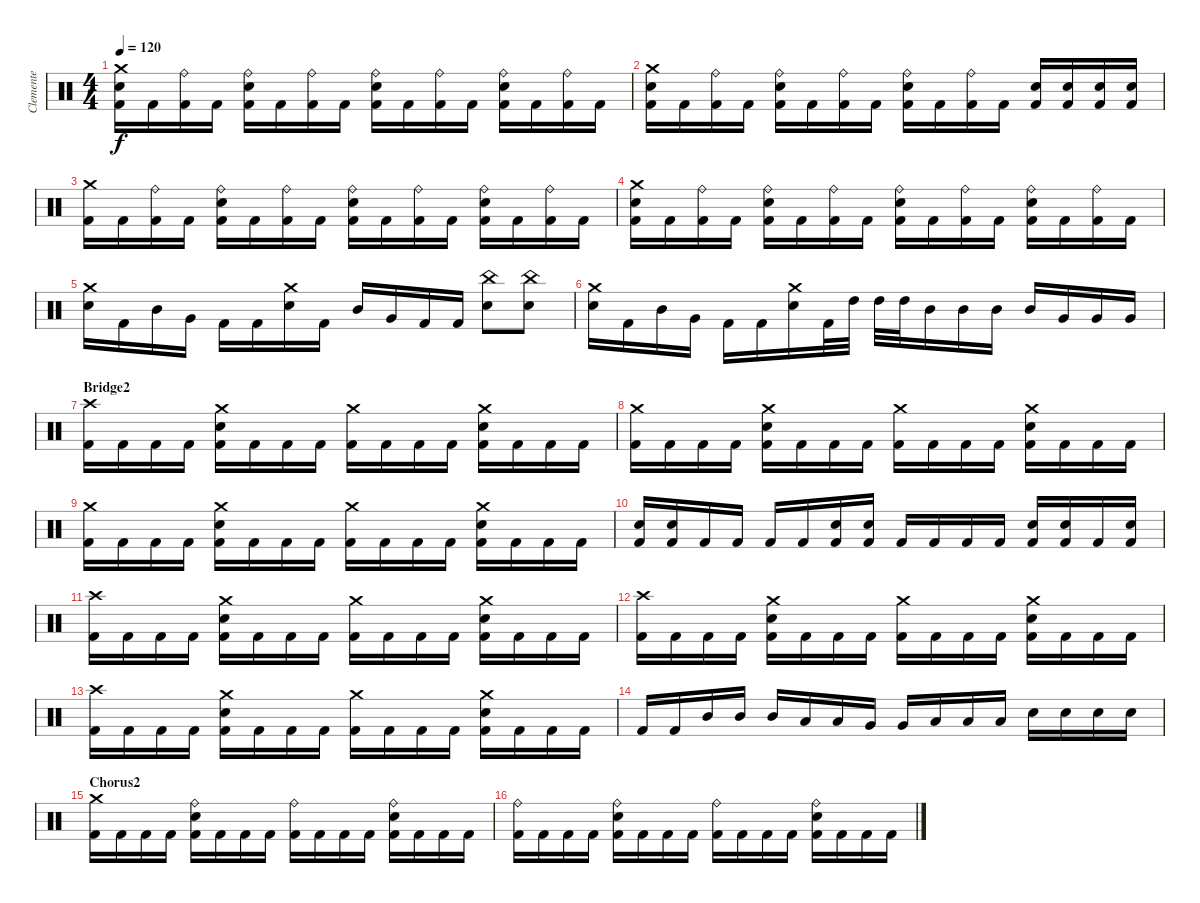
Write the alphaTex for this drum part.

\track ("Clemente" "Clemente") {instrument percussion}
\staff {score}
\articulation defaults
\ts (4 4)
\tempo 120
\clef neutral
\ks c
("Kick (hit) 2" "Electric Snare (hit)" "Crash medium (hit)").16{dy f} "Kick (hit) 2".16 ("Kick (hit) 2" "Ride (bell)").16 "Kick (hit) 2".16 ("Kick (hit) 2" "Electric Snare (hit)" "Ride (bell)").16 "Kick (hit) 2".16 ("Kick (hit) 2" "Ride (bell)").16 "Kick (hit) 2".16 ("Kick (hit) 2" "Electric Snare (hit)" "Ride (bell)").16 "Kick (hit) 2".16 ("Kick (hit) 2" "Ride (bell)").16 "Kick (hit) 2".16 ("Kick (hit) 2" "Electric Snare (hit)" "Ride (bell)").16 "Kick (hit) 2".16 ("Kick (hit) 2" "Ride (bell)").16 "Kick (hit) 2".16 |
("Kick (hit) 2" "Electric Snare (hit)" "Crash medium (hit)").16 "Kick (hit) 2".16 ("Kick (hit) 2" "Ride (bell)").16 "Kick (hit) 2".16 ("Kick (hit) 2" "Electric Snare (hit)" "Ride (bell)").16 "Kick (hit) 2".16 ("Kick (hit) 2" "Ride (bell)").16 "Kick (hit) 2".16 ("Kick (hit) 2" "Electric Snare (hit)" "Ride (bell)").16 "Kick (hit) 2".16 ("Kick (hit) 2" "Ride (bell)").16 "Kick (hit) 2".16 ("Kick (hit) 2" "Electric Snare (hit)").16 ("Kick (hit) 2" "Electric Snare (hit)").16 ("Kick (hit) 2" "Electric Snare (hit)").16 ("Kick (hit) 2" "Electric Snare (hit)").16 |
("Kick (hit) 2" "Crash medium (hit)").16 "Kick (hit) 2".16 ("Kick (hit) 2" "Ride (bell)").16 "Kick (hit) 2".16 ("Kick (hit) 2" "Electric Snare (hit)" "Ride (bell)").16 "Kick (hit) 2".16 ("Kick (hit) 2" "Ride (bell)").16 "Kick (hit) 2".16 ("Kick (hit) 2" "Electric Snare (hit)" "Ride (bell)").16 "Kick (hit) 2".16 ("Kick (hit) 2" "Ride (bell)").16 "Kick (hit) 2".16 ("Kick (hit) 2" "Electric Snare (hit)" "Ride (bell)").16 "Kick (hit) 2".16 ("Kick (hit) 2" "Ride (bell)").16 "Kick (hit) 2".16 |
("Kick (hit) 2" "Electric Snare (hit)" "Crash medium (hit)").16 "Kick (hit) 2".16 ("Kick (hit) 2" "Ride (bell)").16 "Kick (hit) 2".16 ("Kick (hit) 2" "Electric Snare (hit)" "Ride (bell)").16 "Kick (hit) 2".16 ("Kick (hit) 2" "Ride (bell)").16 "Kick (hit) 2".16 ("Kick (hit) 2" "Electric Snare (hit)" "Ride (bell)").16 "Kick (hit) 2".16 ("Kick (hit) 2" "Ride (bell)").16 "Kick (hit) 2".16 ("Kick (hit) 2" "Electric Snare (hit)" "Ride (bell)").16 "Kick (hit) 2".16 ("Kick (hit) 2" "Ride (bell)").16 "Kick (hit) 2".16 |
("Electric Snare (hit)" "Crash medium (hit)").16 "Kick (hit) 2".16 "Mid Tom (hit)".16 "Very Low Tom (hit)".16 "Kick (hit) 2".16 "Kick (hit) 2".16 ("Electric Snare (hit)" "Crash medium (hit)").16 "Kick (hit) 2".16 "Mid Tom (hit)".16 "Very Low Tom (hit)".16 "Kick (hit) 2".16 "Kick (hit) 2".16 ("Electric Snare (hit)" "China (hit)").8 ("Electric Snare (hit)" "China (hit)").8 |
("Electric Snare (hit)" "Crash medium (hit)").16 "Kick (hit) 2".16 "Mid Tom (hit)".16 "Very Low Tom (hit)".16 "Kick (hit) 2".16 "Kick (hit) 2".16 ("Electric Snare (hit)" "Crash medium (hit)").16 "Kick (hit) 2".32 "High Tom (hit)".32 "High Tom (hit)".32 "High Tom (hit)".32 "Mid Tom (hit)".16 "Mid Tom (hit)".16 "Mid Tom (hit)".16 "Mid Tom (hit)".16 "Very Low Tom (hit)".16 "Very Low Tom (hit)".16 "Very Low Tom (hit)".16 |
\section ("" "Bridge2")
("Kick (hit) 2" "Crash high (hit)").16 "Kick (hit) 2".16 "Kick (hit) 2".16 "Kick (hit) 2".16 ("Kick (hit) 2" "Electric Snare (hit)" "Crash medium (hit)").16 "Kick (hit) 2".16 "Kick (hit) 2".16 "Kick (hit) 2".16 ("Kick (hit) 2" "Crash medium (hit)").16 "Kick (hit) 2".16 "Kick (hit) 2".16 "Kick (hit) 2".16 ("Kick (hit) 2" "Electric Snare (hit)" "Crash medium (hit)").16 "Kick (hit) 2".16 "Kick (hit) 2".16 "Kick (hit) 2".16 |
("Kick (hit) 2" "Crash medium (hit)").16 "Kick (hit) 2".16 "Kick (hit) 2".16 "Kick (hit) 2".16 ("Kick (hit) 2" "Electric Snare (hit)" "Crash medium (hit)").16 "Kick (hit) 2".16 "Kick (hit) 2".16 "Kick (hit) 2".16 ("Kick (hit) 2" "Crash medium (hit)").16 "Kick (hit) 2".16 "Kick (hit) 2".16 "Kick (hit) 2".16 ("Kick (hit) 2" "Electric Snare (hit)" "Crash medium (hit)").16 "Kick (hit) 2".16 "Kick (hit) 2".16 "Kick (hit) 2".16 |
("Kick (hit) 2" "Crash medium (hit)").16 "Kick (hit) 2".16 "Kick (hit) 2".16 "Kick (hit) 2".16 ("Kick (hit) 2" "Electric Snare (hit)" "Crash medium (hit)").16 "Kick (hit) 2".16 "Kick (hit) 2".16 "Kick (hit) 2".16 ("Kick (hit) 2" "Crash medium (hit)").16 "Kick (hit) 2".16 "Kick (hit) 2".16 "Kick (hit) 2".16 ("Kick (hit) 2" "Electric Snare (hit)" "Crash medium (hit)").16 "Kick (hit) 2".16 "Kick (hit) 2".16 "Kick (hit) 2".16 |
("Kick (hit) 2" "Electric Snare (hit)").16 ("Kick (hit) 2" "Electric Snare (hit)").16 "Kick (hit) 2".16 "Kick (hit) 2".16 "Kick (hit) 2".16 "Kick (hit) 2".16 ("Kick (hit) 2" "Electric Snare (hit)").16 ("Kick (hit) 2" "Electric Snare (hit)").16 "Kick (hit) 2".16 "Kick (hit) 2".16 "Kick (hit) 2".16 "Kick (hit) 2".16 ("Kick (hit) 2" "Electric Snare (hit)").16 ("Kick (hit) 2" "Electric Snare (hit)").16 "Kick (hit) 2".16 ("Kick (hit) 2" "Electric Snare (hit)").16 |
("Kick (hit) 2" "Crash high (hit)").16 "Kick (hit) 2".16 "Kick (hit) 2".16 "Kick (hit) 2".16 ("Kick (hit) 2" "Electric Snare (hit)" "Crash medium (hit)").16 "Kick (hit) 2".16 "Kick (hit) 2".16 "Kick (hit) 2".16 ("Kick (hit) 2" "Crash medium (hit)").16 "Kick (hit) 2".16 "Kick (hit) 2".16 "Kick (hit) 2".16 ("Kick (hit) 2" "Electric Snare (hit)" "Crash medium (hit)").16 "Kick (hit) 2".16 "Kick (hit) 2".16 "Kick (hit) 2".16 |
("Kick (hit) 2" "Crash high (hit)").16 "Kick (hit) 2".16 "Kick (hit) 2".16 "Kick (hit) 2".16 ("Kick (hit) 2" "Electric Snare (hit)" "Crash medium (hit)").16 "Kick (hit) 2".16 "Kick (hit) 2".16 "Kick (hit) 2".16 ("Kick (hit) 2" "Crash medium (hit)").16 "Kick (hit) 2".16 "Kick (hit) 2".16 "Kick (hit) 2".16 ("Kick (hit) 2" "Electric Snare (hit)" "Crash medium (hit)").16 "Kick (hit) 2".16 "Kick (hit) 2".16 "Kick (hit) 2".16 |
("Kick (hit) 2" "Crash high (hit)").16 "Kick (hit) 2".16 "Kick (hit) 2".16 "Kick (hit) 2".16 ("Kick (hit) 2" "Electric Snare (hit)" "Crash medium (hit)").16 "Kick (hit) 2".16 "Kick (hit) 2".16 "Kick (hit) 2".16 ("Kick (hit) 2" "Crash medium (hit)").16 "Kick (hit) 2".16 "Kick (hit) 2".16 "Kick (hit) 2".16 ("Kick (hit) 2" "Electric Snare (hit)" "Crash medium (hit)").16 "Kick (hit) 2".16 "Kick (hit) 2".16 "Kick (hit) 2".16 |
"Kick (hit) 2".16 "Kick (hit) 2".16 "Mid Tom (hit)".16 "Mid Tom (hit)".16 "Mid Tom (hit)".16 "Low Tom (hit)".16 "Low Tom (hit)".16 "Very Low Tom (hit)".16 "Very Low Tom (hit)".16 "Low Floor Tom (hit)".16 "Low Floor Tom (hit)".16 "Low Floor Tom (hit)".16 "Electric Snare (hit)".16 "Electric Snare (hit)".16 "Electric Snare (hit)".16 "Electric Snare (hit)".16 |
\section ("" "Chorus2")
("Kick (hit) 2" "Crash medium (hit)").16 "Kick (hit) 2".16 "Kick (hit) 2".16 "Kick (hit) 2".16 ("Kick (hit) 2" "Electric Snare (hit)" "Ride (bell)").16 "Kick (hit) 2".16 "Kick (hit) 2".16 "Kick (hit) 2".16 ("Kick (hit) 2" "Ride (bell)").16 "Kick (hit) 2".16 "Kick (hit) 2".16 "Kick (hit) 2".16 ("Kick (hit) 2" "Electric Snare (hit)" "Ride (bell)").16 "Kick (hit) 2".16 "Kick (hit) 2".16 "Kick (hit) 2".16 |
("Kick (hit) 2" "Ride (bell)").16 "Kick (hit) 2".16 "Kick (hit) 2".16 "Kick (hit) 2".16 ("Kick (hit) 2" "Electric Snare (hit)" "Ride (bell)").16 "Kick (hit) 2".16 "Kick (hit) 2".16 "Kick (hit) 2".16 ("Kick (hit) 2" "Ride (bell)").16 "Kick (hit) 2".16 "Kick (hit) 2".16 "Kick (hit) 2".16 ("Kick (hit) 2" "Electric Snare (hit)" "Ride (bell)").16 "Kick (hit) 2".16 "Kick (hit) 2".16 "Kick (hit) 2".16
